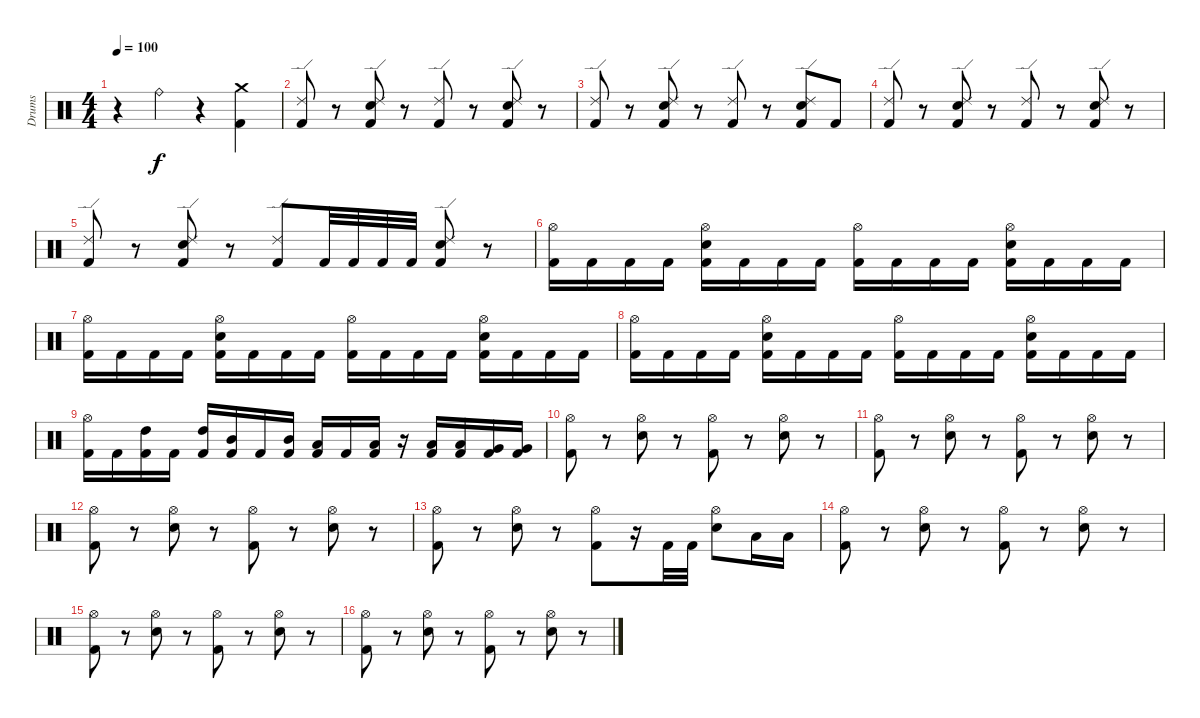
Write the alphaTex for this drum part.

\track ("Drums" "Drums") {instrument percussion}
\staff {score}
\articulation defaults
\ts (4 4)
\tempo 100
\clef neutral
\ks c
r.4{dy f} "Ride (bell)".4 r.4 ("Crash medium (hit)" "Kick (hit) 2").4 |
("Ride (edge) 2" "Kick (hit) 2").8 r.8 ("Ride (edge) 2" "Snare (hit) 2" "Kick (hit) 2").8 r.8 ("Ride (edge) 2" "Kick (hit) 2").8 r.8 ("Ride (edge) 2" "Snare (hit) 2" "Kick (hit) 2").8 r.8 |
("Ride (edge) 2" "Kick (hit) 2").8 r.8 ("Ride (edge) 2" "Snare (hit) 2" "Kick (hit) 2").8 r.8 ("Ride (edge) 2" "Kick (hit) 2").8 r.8 ("Ride (edge) 2" "Snare (hit) 2" "Kick (hit) 2").8 "Kick (hit) 2".8 |
("Ride (edge) 2" "Kick (hit) 2").8 r.8 ("Ride (edge) 2" "Snare (hit) 2" "Kick (hit) 2").8 r.8 ("Ride (edge) 2" "Kick (hit) 2").8 r.8 ("Ride (edge) 2" "Snare (hit) 2" "Kick (hit) 2").8 r.8 |
("Ride (edge) 2" "Kick (hit) 2").8 r.8 ("Ride (edge) 2" "Snare (hit) 2" "Kick (hit) 2").8 r.8 ("Ride (edge) 2" "Kick (hit) 2").8 "Kick (hit) 2".32 "Kick (hit) 2".32 "Kick (hit) 2".32 "Kick (hit) 2".32 ("Ride (edge) 2" "Snare (hit) 2" "Kick (hit) 2").8 r.8 |
("Hi-Hat (open)" "Kick (hit) 2").16 "Kick (hit) 2".16 "Kick (hit) 2".16 "Kick (hit) 2".16 ("Hi-Hat (open)" "Snare (hit) 2" "Kick (hit) 2").16 "Kick (hit) 2".16 "Kick (hit) 2".16 "Kick (hit) 2".16 ("Hi-Hat (open)" "Kick (hit) 2").16 "Kick (hit) 2".16 "Kick (hit) 2".16 "Kick (hit) 2".16 ("Hi-Hat (open)" "Snare (hit) 2" "Kick (hit) 2").16 "Kick (hit) 2".16 "Kick (hit) 2".16 "Kick (hit) 2".16 |
("Hi-Hat (open)" "Kick (hit) 2").16 "Kick (hit) 2".16 "Kick (hit) 2".16 "Kick (hit) 2".16 ("Hi-Hat (open)" "Snare (hit) 2" "Kick (hit) 2").16 "Kick (hit) 2".16 "Kick (hit) 2".16 "Kick (hit) 2".16 ("Hi-Hat (open)" "Kick (hit) 2").16 "Kick (hit) 2".16 "Kick (hit) 2".16 "Kick (hit) 2".16 ("Hi-Hat (open)" "Snare (hit) 2" "Kick (hit) 2").16 "Kick (hit) 2".16 "Kick (hit) 2".16 "Kick (hit) 2".16 |
("Hi-Hat (open)" "Kick (hit) 2").16 "Kick (hit) 2".16 "Kick (hit) 2".16 "Kick (hit) 2".16 ("Hi-Hat (open)" "Snare (hit) 2" "Kick (hit) 2").16 "Kick (hit) 2".16 "Kick (hit) 2".16 "Kick (hit) 2".16 ("Hi-Hat (open)" "Kick (hit) 2").16 "Kick (hit) 2".16 "Kick (hit) 2".16 "Kick (hit) 2".16 ("Hi-Hat (open)" "Snare (hit) 2" "Kick (hit) 2").16 "Kick (hit) 2".16 "Kick (hit) 2".16 "Kick (hit) 2".16 |
("Hi-Hat (open)" "Kick (hit) 2").16 "Kick (hit) 2".16 ("High Tom (hit)" "Kick (hit) 2").16 "Kick (hit) 2".16 ("High Tom (hit)" "Kick (hit) 2").16 ("Mid Tom (hit)" "Kick (hit) 2").16 "Kick (hit) 2".16 ("Mid Tom (hit)" "Kick (hit) 2").16 ("Low Tom (hit)" "Kick (hit) 2").16 "Kick (hit) 2".16 ("Low Tom (hit)" "Kick (hit) 2").16 r.16 ("Low Tom (hit)" "Kick (hit) 2").16 ("Low Tom (hit)" "Kick (hit) 2").16 ("Very Low Tom (hit)" "Kick (hit) 2").16 ("Very Low Tom (hit)" "Kick (hit) 2").16 |
("Hi-Hat (open)" "Kick (hit) 2").8 r.8 ("Hi-Hat (open)" "Snare (hit) 2").8 r.8 ("Hi-Hat (open)" "Kick (hit) 2").8 r.8 ("Hi-Hat (open)" "Snare (hit) 2").8 r.8 |
("Hi-Hat (open)" "Kick (hit) 2").8 r.8 ("Hi-Hat (open)" "Snare (hit) 2").8 r.8 ("Hi-Hat (open)" "Kick (hit) 2").8 r.8 ("Hi-Hat (open)" "Snare (hit) 2").8 r.8 |
("Hi-Hat (open)" "Kick (hit) 2").8 r.8 ("Hi-Hat (open)" "Snare (hit) 2").8 r.8 ("Hi-Hat (open)" "Kick (hit) 2").8 r.8 ("Hi-Hat (open)" "Snare (hit) 2").8 r.8 |
("Hi-Hat (open)" "Kick (hit) 2").8 r.8 ("Hi-Hat (open)" "Snare (hit) 2").8 r.8 ("Hi-Hat (open)" "Kick (hit) 2").8 r.16 "Kick (hit) 2".32 "Kick (hit) 2".32 ("Hi-Hat (open)" "Snare (hit) 2").8 "Low Tom (hit)".16 "Low Tom (hit)".16 |
("Hi-Hat (open)" "Kick (hit) 2").8 r.8 ("Hi-Hat (open)" "Snare (hit) 2").8 r.8 ("Hi-Hat (open)" "Kick (hit) 2").8 r.8 ("Hi-Hat (open)" "Snare (hit) 2").8 r.8 |
("Hi-Hat (open)" "Kick (hit) 2").8 r.8 ("Hi-Hat (open)" "Snare (hit) 2").8 r.8 ("Hi-Hat (open)" "Kick (hit) 2").8 r.8 ("Hi-Hat (open)" "Snare (hit) 2").8 r.8 |
("Hi-Hat (open)" "Kick (hit) 2").8 r.8 ("Hi-Hat (open)" "Snare (hit) 2").8 r.8 ("Hi-Hat (open)" "Kick (hit) 2").8 r.8 ("Hi-Hat (open)" "Snare (hit) 2").8 r.8
